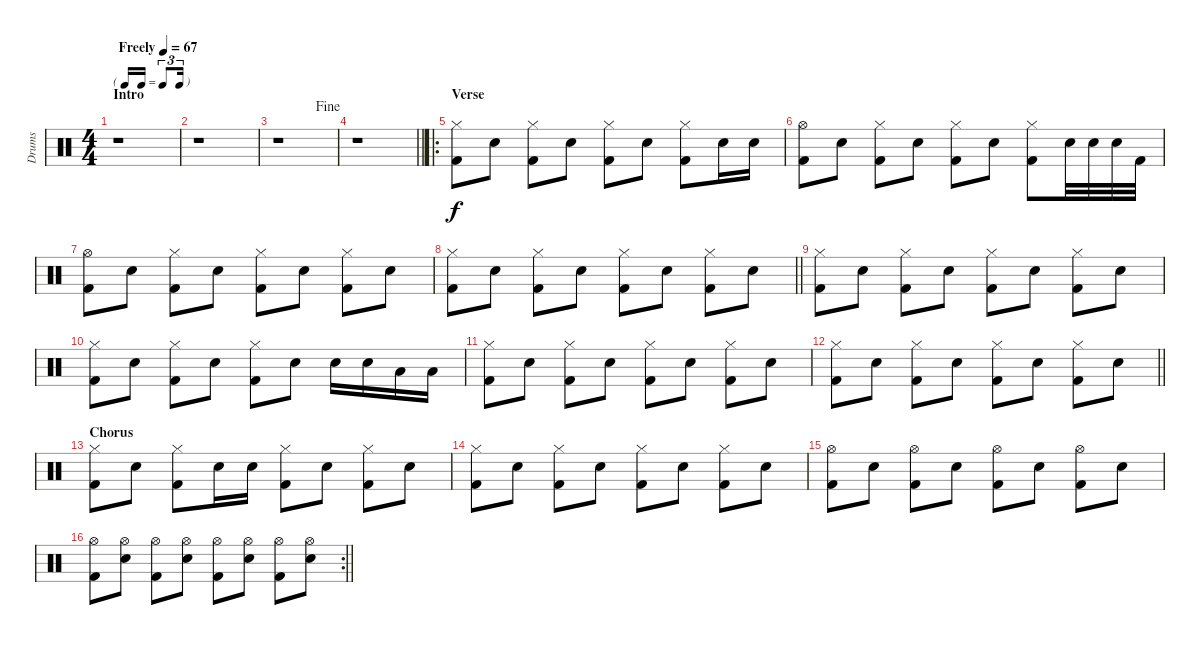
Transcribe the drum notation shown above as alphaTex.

\track ("Drums" "Drums") {instrument percussion}
\staff {score}
\articulation defaults
\ts (4 4)
\tf triplet16th
\section ("" "Intro")
\tempo (67 "Freely")
\clef neutral
\ks c
r.1{dy f} |
r.1 |
\jump fine
r.1 |
\barLineRight lightlight
r.1 |
\ro
\section ("" "Verse")
("Hi-Hat (closed)" "Kick (hit) 2").8 "Electric Snare (hit)".8 ("Hi-Hat (closed)" "Kick (hit) 2").8 "Electric Snare (hit)".8 ("Hi-Hat (closed)" "Kick (hit) 2").8 "Electric Snare (hit)".8 ("Hi-Hat (closed)" "Kick (hit) 2").8 "Electric Snare (hit)".16 "Electric Snare (hit)".16 |
("Hi-Hat (open)" "Kick (hit) 2").8 "Electric Snare (hit)".8 ("Hi-Hat (closed)" "Kick (hit) 2").8 "Electric Snare (hit)".8 ("Hi-Hat (closed)" "Kick (hit) 2").8 "Electric Snare (hit)".8 ("Hi-Hat (closed)" "Kick (hit) 2").8 "Electric Snare (hit)".32 "Electric Snare (hit)".32 "Electric Snare (hit)".32 "Kick (hit) 2".32 |
("Hi-Hat (open)" "Kick (hit) 2").8 "Electric Snare (hit)".8 ("Hi-Hat (closed)" "Kick (hit) 2").8 "Electric Snare (hit)".8 ("Hi-Hat (closed)" "Kick (hit) 2").8 "Electric Snare (hit)".8 ("Hi-Hat (closed)" "Kick (hit) 2").8 "Electric Snare (hit)".8 |
\barLineRight lightlight
("Hi-Hat (closed)" "Kick (hit) 2").8 "Electric Snare (hit)".8 ("Hi-Hat (closed)" "Kick (hit) 2").8 "Electric Snare (hit)".8 ("Hi-Hat (closed)" "Kick (hit) 2").8 "Electric Snare (hit)".8 ("Hi-Hat (closed)" "Kick (hit) 2").8 "Electric Snare (hit)".8 |
("Hi-Hat (closed)" "Kick (hit) 2").8 "Electric Snare (hit)".8 ("Hi-Hat (closed)" "Kick (hit) 2").8 "Electric Snare (hit)".8 ("Hi-Hat (closed)" "Kick (hit) 2").8 "Electric Snare (hit)".8 ("Hi-Hat (closed)" "Kick (hit) 2").8 "Electric Snare (hit)".8 |
("Hi-Hat (closed)" "Kick (hit) 2").8 "Electric Snare (hit)".8 ("Hi-Hat (closed)" "Kick (hit) 2").8 "Electric Snare (hit)".8 ("Hi-Hat (closed)" "Kick (hit) 2").8 "Electric Snare (hit)".8 "Electric Snare (hit)".16 "Electric Snare (hit)".16 "Low Floor Tom (hit)".16 "Low Floor Tom (hit)".16 |
("Hi-Hat (closed)" "Kick (hit) 2").8 "Electric Snare (hit)".8 ("Hi-Hat (closed)" "Kick (hit) 2").8 "Electric Snare (hit)".8 ("Hi-Hat (closed)" "Kick (hit) 2").8 "Electric Snare (hit)".8 ("Hi-Hat (closed)" "Kick (hit) 2").8 "Electric Snare (hit)".8 |
\barLineRight lightlight
("Hi-Hat (closed)" "Kick (hit) 2").8 "Electric Snare (hit)".8 ("Hi-Hat (closed)" "Kick (hit) 2").8 "Electric Snare (hit)".8 ("Hi-Hat (closed)" "Kick (hit) 2").8 "Electric Snare (hit)".8 ("Hi-Hat (closed)" "Kick (hit) 2").8 "Electric Snare (hit)".8 |
\section ("" "Chorus")
("Hi-Hat (closed)" "Kick (hit) 2").8 "Electric Snare (hit)".8 ("Hi-Hat (closed)" "Kick (hit) 2").8 "Electric Snare (hit)".16 "Electric Snare (hit)".16 ("Hi-Hat (closed)" "Kick (hit) 2").8 "Electric Snare (hit)".8 ("Hi-Hat (closed)" "Kick (hit) 2").8 "Electric Snare (hit)".8 |
("Hi-Hat (closed)" "Kick (hit) 2").8 "Electric Snare (hit)".8 ("Hi-Hat (closed)" "Kick (hit) 2").8 "Electric Snare (hit)".8 ("Hi-Hat (closed)" "Kick (hit) 2").8 "Electric Snare (hit)".8 ("Hi-Hat (closed)" "Kick (hit) 2").8 "Electric Snare (hit)".8 |
("Hi-Hat (open)" "Kick (hit) 2").8 "Electric Snare (hit)".8 ("Hi-Hat (open)" "Kick (hit) 2").8 "Electric Snare (hit)".8 ("Hi-Hat (open)" "Kick (hit) 2").8 "Electric Snare (hit)".8 ("Hi-Hat (open)" "Kick (hit) 2").8 "Electric Snare (hit)".8 |
\rc 2
\barLineRight lightlight
("Hi-Hat (open)" "Kick (hit) 2").8 ("Electric Snare (hit)" "Hi-Hat (open)").8 ("Hi-Hat (open)" "Kick (hit) 2").8 ("Electric Snare (hit)" "Hi-Hat (open)").8 ("Hi-Hat (open)" "Kick (hit) 2").8 ("Electric Snare (hit)" "Hi-Hat (open)").8 ("Hi-Hat (open)" "Kick (hit) 2").8 ("Electric Snare (hit)" "Hi-Hat (open)").8
